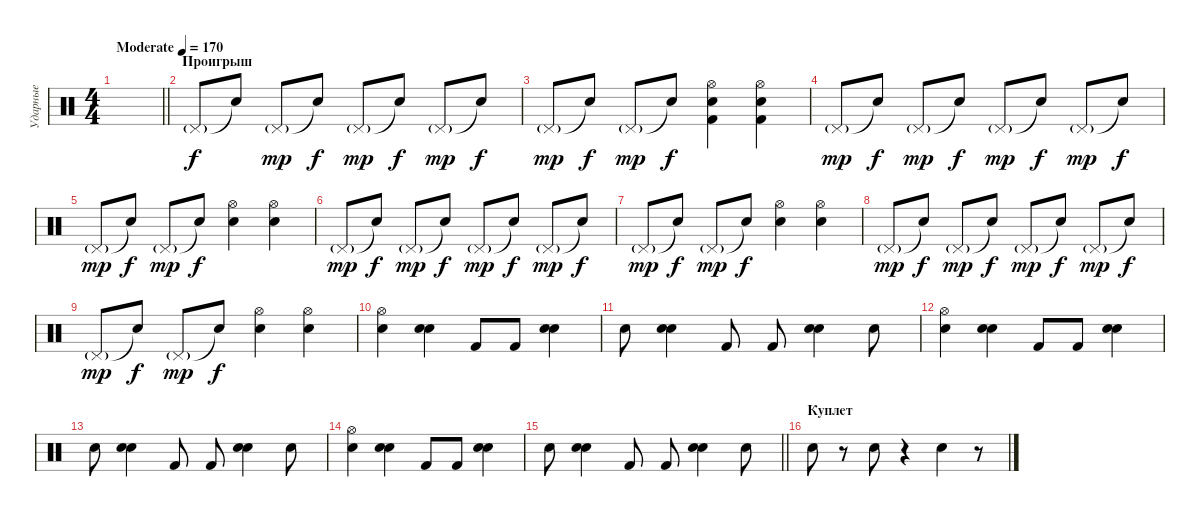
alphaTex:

\track ("Ударные" "Ударные") {instrument percussion}
\staff {score}
\articulation defaults
\ts (4 4)
\tempo (170 "Moderate")
\clef neutral
\barLineRight lightlight
\ks c
|
\section ("" "Проигрыш")
"Pedal Hi-Hat (hit)"{g}.8 "Snare (hit)"{t}.8{dy f} "Pedal Hi-Hat (hit)"{g}.8{dy mp} "Snare (hit)"{t}.8{dy f} "Pedal Hi-Hat (hit)"{g}.8{dy mp} "Snare (hit)"{t}.8{dy f} "Pedal Hi-Hat (hit)"{g}.8{dy mp} "Snare (hit)"{t}.8{dy f} |
"Pedal Hi-Hat (hit)"{g}.8{dy mp} "Snare (hit)"{t}.8{dy f} "Pedal Hi-Hat (hit)"{g}.8{dy mp} "Snare (hit)"{t}.8{dy f} ("Hi-Hat (open)" "Electric Snare (hit)" "Kick (hit) 2").4 ("Hi-Hat (open)" "Electric Snare (hit)" "Kick (hit) 2").4 |
"Pedal Hi-Hat (hit)"{g}.8{dy mp} "Snare (hit)"{t}.8{dy f} "Pedal Hi-Hat (hit)"{g}.8{dy mp} "Snare (hit)"{t}.8{dy f} "Pedal Hi-Hat (hit)"{g}.8{dy mp} "Snare (hit)"{t}.8{dy f} "Pedal Hi-Hat (hit)"{g}.8{dy mp} "Snare (hit)"{t}.8{dy f} |
"Pedal Hi-Hat (hit)"{g}.8{dy mp} "Snare (hit)"{t}.8{dy f} "Pedal Hi-Hat (hit)"{g}.8{dy mp} "Snare (hit)"{t}.8{dy f} ("Electric Snare (hit)" "Hi-Hat (open)").4 ("Electric Snare (hit)" "Hi-Hat (open)").4 |
"Pedal Hi-Hat (hit)"{g}.8{dy mp} "Snare (hit)"{t}.8{dy f} "Pedal Hi-Hat (hit)"{g}.8{dy mp} "Snare (hit)"{t}.8{dy f} "Pedal Hi-Hat (hit)"{g}.8{dy mp} "Snare (hit)"{t}.8{dy f} "Pedal Hi-Hat (hit)"{g}.8{dy mp} "Snare (hit)"{t}.8{dy f} |
"Pedal Hi-Hat (hit)"{g}.8{dy mp} "Snare (hit)"{t}.8{dy f} "Pedal Hi-Hat (hit)"{g}.8{dy mp} "Snare (hit)"{t}.8{dy f} ("Electric Snare (hit)" "Hi-Hat (open)").4 ("Electric Snare (hit)" "Hi-Hat (open)").4 |
"Pedal Hi-Hat (hit)"{g}.8{dy mp} "Snare (hit)"{t}.8{dy f} "Pedal Hi-Hat (hit)"{g}.8{dy mp} "Snare (hit)"{t}.8{dy f} "Pedal Hi-Hat (hit)"{g}.8{dy mp} "Snare (hit)"{t}.8{dy f} "Pedal Hi-Hat (hit)"{g}.8{dy mp} "Snare (hit)"{t}.8{dy f} |
"Pedal Hi-Hat (hit)"{g}.8{dy mp} "Snare (hit)"{t}.8{dy f} "Pedal Hi-Hat (hit)"{g}.8{dy mp} "Snare (hit)"{t}.8{dy f} ("Electric Snare (hit)" "Hi-Hat (open)").4 ("Electric Snare (hit)" "Hi-Hat (open)").4 |
("Hi-Hat (open)" "Electric Snare (hit)").4 ("Electric Snare (hit)" "Snare (hit) 2").4 "Kick (hit) 2".8 "Kick (hit) 2".8 ("Electric Snare (hit)" "Snare (hit) 2").4 |
"Electric Snare (hit)".8 ("Electric Snare (hit)" "Snare (hit) 2").4 "Kick (hit) 2".8 "Kick (hit) 2".8 ("Electric Snare (hit)" "Snare (hit) 2").4 "Electric Snare (hit)".8 |
("Hi-Hat (open)" "Electric Snare (hit)").4 ("Electric Snare (hit)" "Snare (hit) 2").4 "Kick (hit) 2".8 "Kick (hit) 2".8 ("Electric Snare (hit)" "Snare (hit) 2").4 |
"Electric Snare (hit)".8 ("Electric Snare (hit)" "Snare (hit) 2").4 "Kick (hit) 2".8 "Kick (hit) 2".8 ("Electric Snare (hit)" "Snare (hit) 2").4 "Electric Snare (hit)".8 |
("Hi-Hat (open)" "Electric Snare (hit)").4 ("Electric Snare (hit)" "Snare (hit) 2").4 "Kick (hit) 2".8 "Kick (hit) 2".8 ("Electric Snare (hit)" "Snare (hit) 2").4 |
\barLineRight lightlight "Electric Snare (hit)".8
("Electric Snare (hit)" "Snare (hit) 2").4 "Kick (hit) 2".8 "Kick (hit) 2".8 ("Electric Snare (hit)" "Snare (hit) 2").4 "Electric Snare (hit)".8 |
\section ("" "Куплет")
"Electric Snare (hit)".8 r.8 "Electric Snare (hit)".8 r.4 "Electric Snare (hit)".4 r.8
